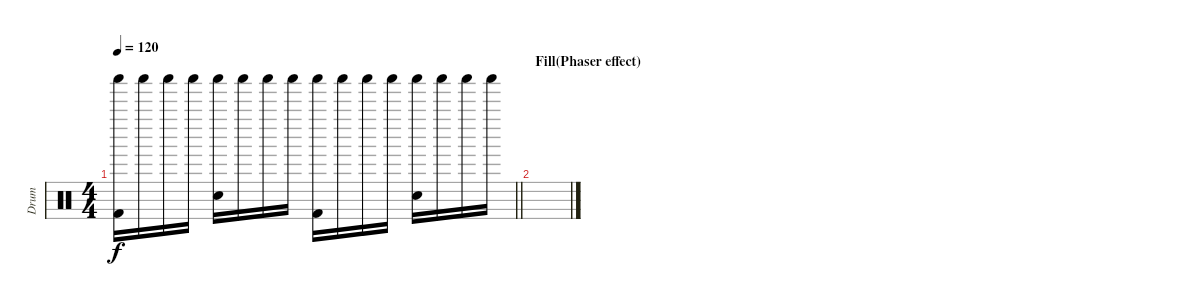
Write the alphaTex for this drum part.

\track ("Drum " "Drum ") {instrument percussion}
\staff {score}
\articulation defaults
\ts (4 4)
\tempo 120
\clef neutral
\barLineRight lightlight
\ks c
("Kick (hit) 2" "Shaker (hit)").16{dy f} "Shaker (hit)".16 "Shaker (hit)".16 "Shaker (hit)".16 ("Electric Snare (hit)" "Shaker (hit)").16 "Shaker (hit)".16 "Shaker (hit)".16 "Shaker (hit)".16 ("Kick (hit) 2" "Shaker (hit)").16 "Shaker (hit)".16 "Shaker (hit)".16 "Shaker (hit)".16 ("Electric Snare (hit)" "Shaker (hit)").16 "Shaker (hit)".16 "Shaker (hit)".16 "Shaker (hit)".16 |
\section ("" "Fill(Phaser effect)")
